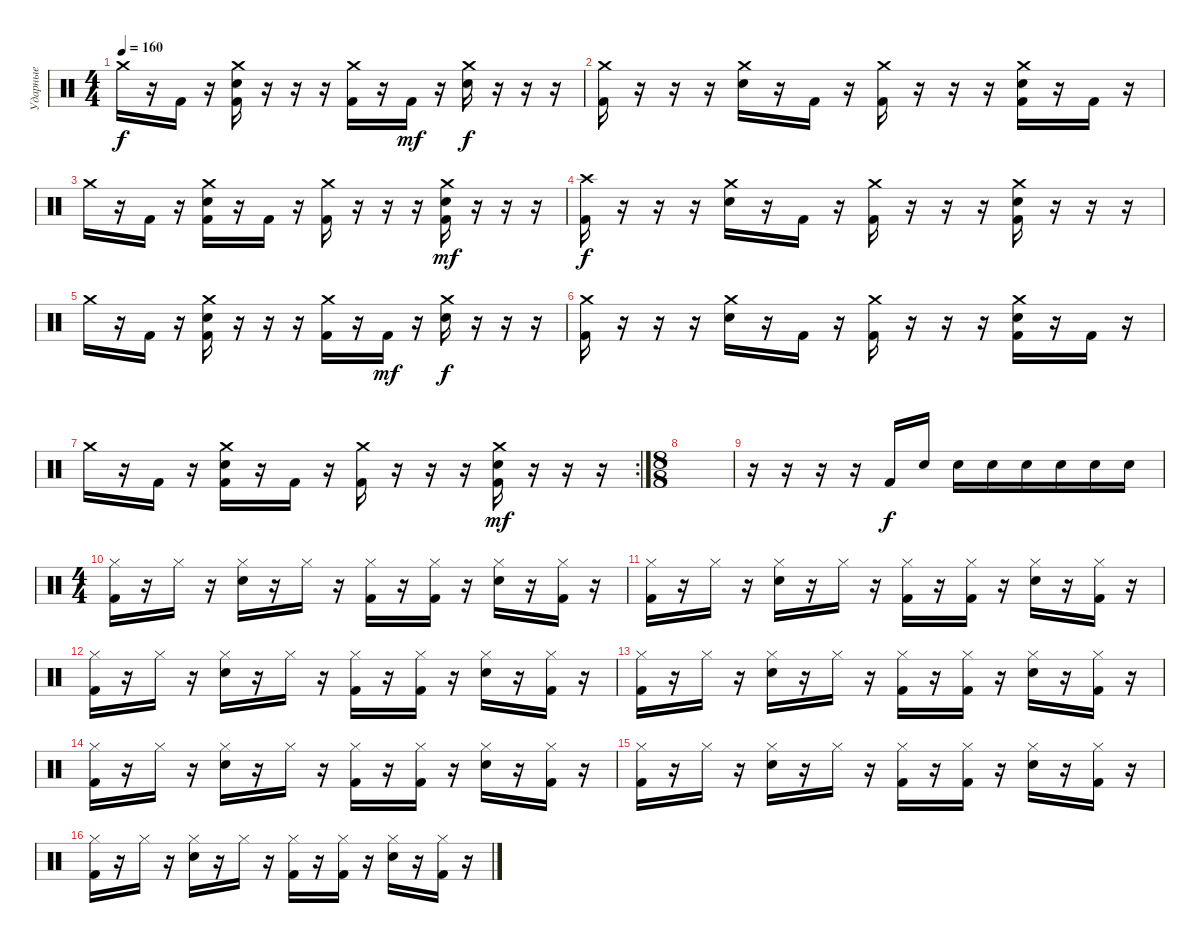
\track ("Ударные" "Ударные") {instrument percussion}
\staff {score}
\articulation defaults
\ts (4 4)
\tempo 160
\clef neutral
\ks c "Crash medium (hit)".16{dy f}
r.16 "Kick (hit) 2".16 r.16 ("Crash medium (hit)" "Electric Snare (hit)" "Kick (hit) 2").16 r.16 r.16 r.16 ("Crash medium (hit)" "Kick (hit) 2").16 r.16 "Kick (hit) 2".16{dy mf} r.16 ("Crash medium (hit)" "Electric Snare (hit)").16{dy f} r.16 r.16 r.16 |
("Crash medium (hit)" "Kick (hit) 2").16 r.16 r.16 r.16 ("Crash medium (hit)" "Electric Snare (hit)").16 r.16 "Kick (hit) 2".16 r.16 ("Crash medium (hit)" "Kick (hit) 2").16 r.16 r.16 r.16 ("Crash medium (hit)" "Electric Snare (hit)" "Kick (hit) 2").16 r.16 "Kick (hit) 2".16 r.16 |
"Crash medium (hit)".16 r.16 "Kick (hit) 2".16 r.16 ("Crash medium (hit)" "Electric Snare (hit)" "Kick (hit) 2").16 r.16 "Kick (hit) 2".16 r.16 ("Crash medium (hit)" "Kick (hit) 2").16 r.16 r.16 r.16 ("Crash medium (hit)" "Electric Snare (hit)" "Kick (hit) 2").16{dy mf} r.16 r.16 r.16 |
("Crash high (hit)" "Kick (hit) 2").16{dy f} r.16 r.16 r.16 ("Crash medium (hit)" "Electric Snare (hit)").16 r.16 "Kick (hit) 2".16 r.16 ("Crash medium (hit)" "Kick (hit) 2").16 r.16 r.16 r.16 ("Crash medium (hit)" "Electric Snare (hit)" "Kick (hit) 2").16 r.16 r.16 r.16 |
"Crash medium (hit)".16 r.16 "Kick (hit) 2".16 r.16 ("Crash medium (hit)" "Electric Snare (hit)" "Kick (hit) 2").16 r.16 r.16 r.16 ("Crash medium (hit)" "Kick (hit) 2").16 r.16 "Kick (hit) 2".16{dy mf} r.16 ("Crash medium (hit)" "Electric Snare (hit)").16{dy f} r.16 r.16 r.16 |
("Crash medium (hit)" "Kick (hit) 2").16 r.16 r.16 r.16 ("Crash medium (hit)" "Electric Snare (hit)").16 r.16 "Kick (hit) 2".16 r.16 ("Crash medium (hit)" "Kick (hit) 2").16 r.16 r.16 r.16 ("Crash medium (hit)" "Electric Snare (hit)" "Kick (hit) 2").16 r.16 "Kick (hit) 2".16 r.16 |
\rc 2 "Crash medium (hit)".16
r.16 "Kick (hit) 2".16 r.16 ("Crash medium (hit)" "Electric Snare (hit)" "Kick (hit) 2").16 r.16 "Kick (hit) 2".16 r.16 ("Crash medium (hit)" "Kick (hit) 2").16 r.16 r.16 r.16 ("Crash medium (hit)" "Electric Snare (hit)" "Kick (hit) 2").16{dy mf} r.16 r.16 r.16 |
\ts (8 8)
|
r.16 r.16 r.16 r.16 "Kick (hit) 2".16{dy f} "Electric Snare (hit)".16 "Electric Snare (hit)".16 "Electric Snare (hit)".16 "Electric Snare (hit)".16 "Electric Snare (hit)".16 "Electric Snare (hit)".16 "Electric Snare (hit)".16 |
\ts (4 4)
("Hi-Hat (closed)" "Kick (hit) 2").16 r.16 "Hi-Hat (closed)".16 r.16 ("Hi-Hat (closed)" "Snare (hit) 2").16 r.16 "Hi-Hat (closed)".16 r.16 ("Hi-Hat (closed)" "Kick (hit) 2").16 r.16 ("Hi-Hat (closed)" "Kick (hit) 2").16 r.16 ("Hi-Hat (closed)" "Snare (hit) 2").16 r.16 ("Hi-Hat (closed)" "Kick (hit) 2").16 r.16 |
("Hi-Hat (closed)" "Kick (hit) 2").16 r.16 "Hi-Hat (closed)".16 r.16 ("Hi-Hat (closed)" "Snare (hit) 2").16 r.16 "Hi-Hat (closed)".16 r.16 ("Hi-Hat (closed)" "Kick (hit) 2").16 r.16 ("Hi-Hat (closed)" "Kick (hit) 2").16 r.16 ("Hi-Hat (closed)" "Snare (hit) 2").16 r.16 ("Hi-Hat (closed)" "Kick (hit) 2").16 r.16 |
("Hi-Hat (closed)" "Kick (hit) 2").16 r.16 "Hi-Hat (closed)".16 r.16 ("Hi-Hat (closed)" "Snare (hit) 2").16 r.16 "Hi-Hat (closed)".16 r.16 ("Hi-Hat (closed)" "Kick (hit) 2").16 r.16 ("Hi-Hat (closed)" "Kick (hit) 2").16 r.16 ("Hi-Hat (closed)" "Snare (hit) 2").16 r.16 ("Hi-Hat (closed)" "Kick (hit) 2").16 r.16 |
("Hi-Hat (closed)" "Kick (hit) 2").16 r.16 "Hi-Hat (closed)".16 r.16 ("Hi-Hat (closed)" "Snare (hit) 2").16 r.16 "Hi-Hat (closed)".16 r.16 ("Hi-Hat (closed)" "Kick (hit) 2").16 r.16 ("Hi-Hat (closed)" "Kick (hit) 2").16 r.16 ("Hi-Hat (closed)" "Snare (hit) 2").16 r.16 ("Hi-Hat (closed)" "Kick (hit) 2").16 r.16 |
("Hi-Hat (closed)" "Kick (hit) 2").16 r.16 "Hi-Hat (closed)".16 r.16 ("Hi-Hat (closed)" "Snare (hit) 2").16 r.16 "Hi-Hat (closed)".16 r.16 ("Hi-Hat (closed)" "Kick (hit) 2").16 r.16 ("Hi-Hat (closed)" "Kick (hit) 2").16 r.16 ("Hi-Hat (closed)" "Snare (hit) 2").16 r.16 ("Hi-Hat (closed)" "Kick (hit) 2").16 r.16 |
("Hi-Hat (closed)" "Kick (hit) 2").16 r.16 "Hi-Hat (closed)".16 r.16 ("Hi-Hat (closed)" "Snare (hit) 2").16 r.16 "Hi-Hat (closed)".16 r.16 ("Hi-Hat (closed)" "Kick (hit) 2").16 r.16 ("Hi-Hat (closed)" "Kick (hit) 2").16 r.16 ("Hi-Hat (closed)" "Snare (hit) 2").16 r.16 ("Hi-Hat (closed)" "Kick (hit) 2").16 r.16 |
("Hi-Hat (closed)" "Kick (hit) 2").16 r.16 "Hi-Hat (closed)".16 r.16 ("Hi-Hat (closed)" "Snare (hit) 2").16 r.16 "Hi-Hat (closed)".16 r.16 ("Hi-Hat (closed)" "Kick (hit) 2").16 r.16 ("Hi-Hat (closed)" "Kick (hit) 2").16 r.16 ("Hi-Hat (closed)" "Snare (hit) 2").16 r.16 ("Hi-Hat (closed)" "Kick (hit) 2").16 r.16
